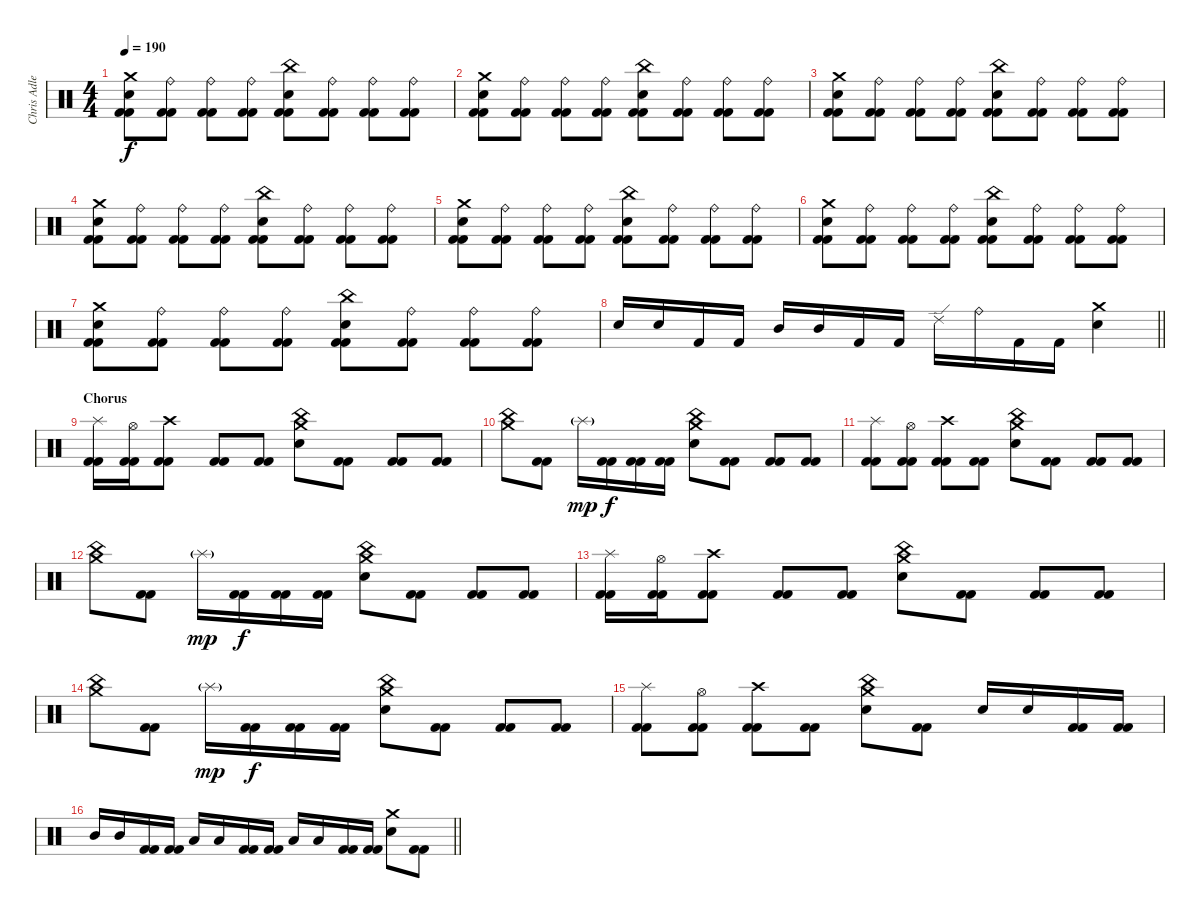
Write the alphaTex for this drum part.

\track ("Chris Adler" "Chris Adle") {instrument percussion}
\staff {score}
\articulation defaults
\ts (4 4)
\tempo 190
\clef neutral
\ks c
("Crash medium (hit)" "Electric Snare (hit)" "Kick (hit) 2" "Kick (hit) 2").8{dy f} ("Ride (bell)" "Kick (hit) 2" "Kick (hit) 2").8 ("Ride (bell)" "Kick (hit) 2" "Kick (hit) 2").8 ("Ride (bell)" "Kick (hit) 2" "Kick (hit) 2").8 ("China (hit)" "Electric Snare (hit)" "Kick (hit) 2" "Kick (hit) 2").8 ("Ride (bell)" "Kick (hit) 2" "Kick (hit) 2").8 ("Ride (bell)" "Kick (hit) 2" "Kick (hit) 2").8 ("Ride (bell)" "Kick (hit) 2" "Kick (hit) 2").8 |
("Crash medium (hit)" "Electric Snare (hit)" "Kick (hit) 2" "Kick (hit) 2").8 ("Ride (bell)" "Kick (hit) 2" "Kick (hit) 2").8 ("Ride (bell)" "Kick (hit) 2" "Kick (hit) 2").8 ("Ride (bell)" "Kick (hit) 2" "Kick (hit) 2").8 ("China (hit)" "Electric Snare (hit)" "Kick (hit) 2" "Kick (hit) 2").8 ("Ride (bell)" "Kick (hit) 2" "Kick (hit) 2").8 ("Ride (bell)" "Kick (hit) 2" "Kick (hit) 2").8 ("Ride (bell)" "Kick (hit) 2" "Kick (hit) 2").8 |
("Crash medium (hit)" "Electric Snare (hit)" "Kick (hit) 2" "Kick (hit) 2").8 ("Ride (bell)" "Kick (hit) 2" "Kick (hit) 2").8 ("Ride (bell)" "Kick (hit) 2" "Kick (hit) 2").8 ("Ride (bell)" "Kick (hit) 2" "Kick (hit) 2").8 ("China (hit)" "Electric Snare (hit)" "Kick (hit) 2" "Kick (hit) 2").8 ("Ride (bell)" "Kick (hit) 2" "Kick (hit) 2").8 ("Ride (bell)" "Kick (hit) 2" "Kick (hit) 2").8 ("Ride (bell)" "Kick (hit) 2" "Kick (hit) 2").8 |
("Crash medium (hit)" "Electric Snare (hit)" "Kick (hit) 2" "Kick (hit) 2").8 ("Ride (bell)" "Kick (hit) 2" "Kick (hit) 2").8 ("Ride (bell)" "Kick (hit) 2" "Kick (hit) 2").8 ("Ride (bell)" "Kick (hit) 2" "Kick (hit) 2").8 ("China (hit)" "Electric Snare (hit)" "Kick (hit) 2" "Kick (hit) 2").8 ("Ride (bell)" "Kick (hit) 2" "Kick (hit) 2").8 ("Ride (bell)" "Kick (hit) 2" "Kick (hit) 2").8 ("Ride (bell)" "Kick (hit) 2" "Kick (hit) 2").8 |
("Crash medium (hit)" "Electric Snare (hit)" "Kick (hit) 2" "Kick (hit) 2").8 ("Ride (bell)" "Kick (hit) 2" "Kick (hit) 2").8 ("Ride (bell)" "Kick (hit) 2" "Kick (hit) 2").8 ("Ride (bell)" "Kick (hit) 2" "Kick (hit) 2").8 ("China (hit)" "Electric Snare (hit)" "Kick (hit) 2" "Kick (hit) 2").8 ("Ride (bell)" "Kick (hit) 2" "Kick (hit) 2").8 ("Ride (bell)" "Kick (hit) 2" "Kick (hit) 2").8 ("Ride (bell)" "Kick (hit) 2" "Kick (hit) 2").8 |
("Crash medium (hit)" "Electric Snare (hit)" "Kick (hit) 2" "Kick (hit) 2").8 ("Ride (bell)" "Kick (hit) 2" "Kick (hit) 2").8 ("Ride (bell)" "Kick (hit) 2" "Kick (hit) 2").8 ("Ride (bell)" "Kick (hit) 2" "Kick (hit) 2").8 ("China (hit)" "Electric Snare (hit)" "Kick (hit) 2" "Kick (hit) 2").8 ("Ride (bell)" "Kick (hit) 2" "Kick (hit) 2").8 ("Ride (bell)" "Kick (hit) 2" "Kick (hit) 2").8 ("Ride (bell)" "Kick (hit) 2" "Kick (hit) 2").8 |
("Crash medium (hit)" "Electric Snare (hit)" "Kick (hit) 2" "Kick (hit) 2").8 ("Ride (bell)" "Kick (hit) 2" "Kick (hit) 2").8 ("Ride (bell)" "Kick (hit) 2" "Kick (hit) 2").8 ("Ride (bell)" "Kick (hit) 2" "Kick (hit) 2").8 ("China (hit)" "Electric Snare (hit)" "Kick (hit) 2" "Kick (hit) 2").8 ("Ride (bell)" "Kick (hit) 2" "Kick (hit) 2").8 ("Ride (bell)" "Kick (hit) 2" "Kick (hit) 2").8 ("Ride (bell)" "Kick (hit) 2" "Kick (hit) 2").8 |
\barLineRight lightlight "Electric Snare (hit)".16 "Electric Snare (hit)".16 "Kick (hit) 2".16 "Kick (hit) 2".16 "Mid Tom (hit)".16 "Mid Tom (hit)".16 "Kick (hit) 2".16 "Kick (hit) 2".16 "Ride (edge) 2".16 "Ride (bell)".16 "Kick (hit) 2".16 "Kick (hit) 2".16
("Electric Snare (hit)" "Crash medium (hit)").4 |
\section ("" "Chorus")
("Splash (hit)" "Kick (hit) 2" "Kick (hit) 2").16 ("Hi-Hat (open)" "Kick (hit) 2" "Kick (hit) 2").16 ("Crash high (hit)" "Kick (hit) 2" "Kick (hit) 2").8 ("Kick (hit) 2" "Kick (hit) 2").8 ("Kick (hit) 2" "Kick (hit) 2").8 ("Crash medium (hit)" "China (hit)" "Electric Snare (hit)").8 ("Kick (hit) 2" "Kick (hit) 2").8 ("Kick (hit) 2" "Kick (hit) 2").8 ("Kick (hit) 2" "Kick (hit) 2").8 |
("Crash medium (hit)" "China (hit)").8 ("Kick (hit) 2" "Kick (hit) 2").8 "Splash (hit)"{g}.16{dy mp} ("Kick (hit) 2" "Kick (hit) 2").16{dy f} ("Kick (hit) 2" "Kick (hit) 2").16 ("Kick (hit) 2" "Kick (hit) 2").16 ("Crash medium (hit)" "China (hit)" "Electric Snare (hit)").8 ("Kick (hit) 2" "Kick (hit) 2").8 ("Kick (hit) 2" "Kick (hit) 2").8 ("Kick (hit) 2" "Kick (hit) 2").8 |
("Splash (hit)" "Kick (hit) 2" "Kick (hit) 2").8 ("Hi-Hat (open)" "Kick (hit) 2" "Kick (hit) 2").8 ("Crash high (hit)" "Kick (hit) 2" "Kick (hit) 2").8 ("Kick (hit) 2" "Kick (hit) 2").8 ("Crash medium (hit)" "China (hit)" "Electric Snare (hit)").8 ("Kick (hit) 2" "Kick (hit) 2").8 ("Kick (hit) 2" "Kick (hit) 2").8 ("Kick (hit) 2" "Kick (hit) 2").8 |
("Crash medium (hit)" "China (hit)").8 ("Kick (hit) 2" "Kick (hit) 2").8 "Splash (hit)"{g}.16{dy mp} ("Kick (hit) 2" "Kick (hit) 2").16{dy f} ("Kick (hit) 2" "Kick (hit) 2").16 ("Kick (hit) 2" "Kick (hit) 2").16 ("Crash medium (hit)" "China (hit)" "Electric Snare (hit)").8 ("Kick (hit) 2" "Kick (hit) 2").8 ("Kick (hit) 2" "Kick (hit) 2").8 ("Kick (hit) 2" "Kick (hit) 2").8 |
("Splash (hit)" "Kick (hit) 2" "Kick (hit) 2").16 ("Hi-Hat (open)" "Kick (hit) 2" "Kick (hit) 2").16 ("Crash high (hit)" "Kick (hit) 2" "Kick (hit) 2").8 ("Kick (hit) 2" "Kick (hit) 2").8 ("Kick (hit) 2" "Kick (hit) 2").8 ("Crash medium (hit)" "China (hit)" "Electric Snare (hit)").8 ("Kick (hit) 2" "Kick (hit) 2").8 ("Kick (hit) 2" "Kick (hit) 2").8 ("Kick (hit) 2" "Kick (hit) 2").8 |
("Crash medium (hit)" "China (hit)").8 ("Kick (hit) 2" "Kick (hit) 2").8 "Splash (hit)"{g}.16{dy mp} ("Kick (hit) 2" "Kick (hit) 2").16{dy f} ("Kick (hit) 2" "Kick (hit) 2").16 ("Kick (hit) 2" "Kick (hit) 2").16 ("Crash medium (hit)" "China (hit)" "Electric Snare (hit)").8 ("Kick (hit) 2" "Kick (hit) 2").8 ("Kick (hit) 2" "Kick (hit) 2").8 ("Kick (hit) 2" "Kick (hit) 2").8 |
("Splash (hit)" "Kick (hit) 2" "Kick (hit) 2").8 ("Hi-Hat (open)" "Kick (hit) 2" "Kick (hit) 2").8 ("Crash high (hit)" "Kick (hit) 2" "Kick (hit) 2").8 ("Kick (hit) 2" "Kick (hit) 2").8 ("Crash medium (hit)" "China (hit)" "Electric Snare (hit)").8 ("Kick (hit) 2" "Kick (hit) 2").8 "Electric Snare (hit)".16 "Electric Snare (hit)".16 ("Kick (hit) 2" "Kick (hit) 2").16 ("Kick (hit) 2" "Kick (hit) 2").16 |
\barLineRight lightlight "Mid Tom (hit)".16 "Mid Tom (hit)".16
("Kick (hit) 2" "Kick (hit) 2").16 ("Kick (hit) 2" "Kick (hit) 2").16 "Low Tom (hit)".16 "Low Tom (hit)".16 ("Kick (hit) 2" "Kick (hit) 2").16 ("Kick (hit) 2" "Kick (hit) 2").16 "Low Floor Tom (hit)".16 "Low Floor Tom (hit)".16 ("Kick (hit) 2" "Kick (hit) 2").16 ("Kick (hit) 2" "Kick (hit) 2").16 ("Crash medium (hit)" "Electric Snare (hit)").8 ("Kick (hit) 2" "Kick (hit) 2").8
